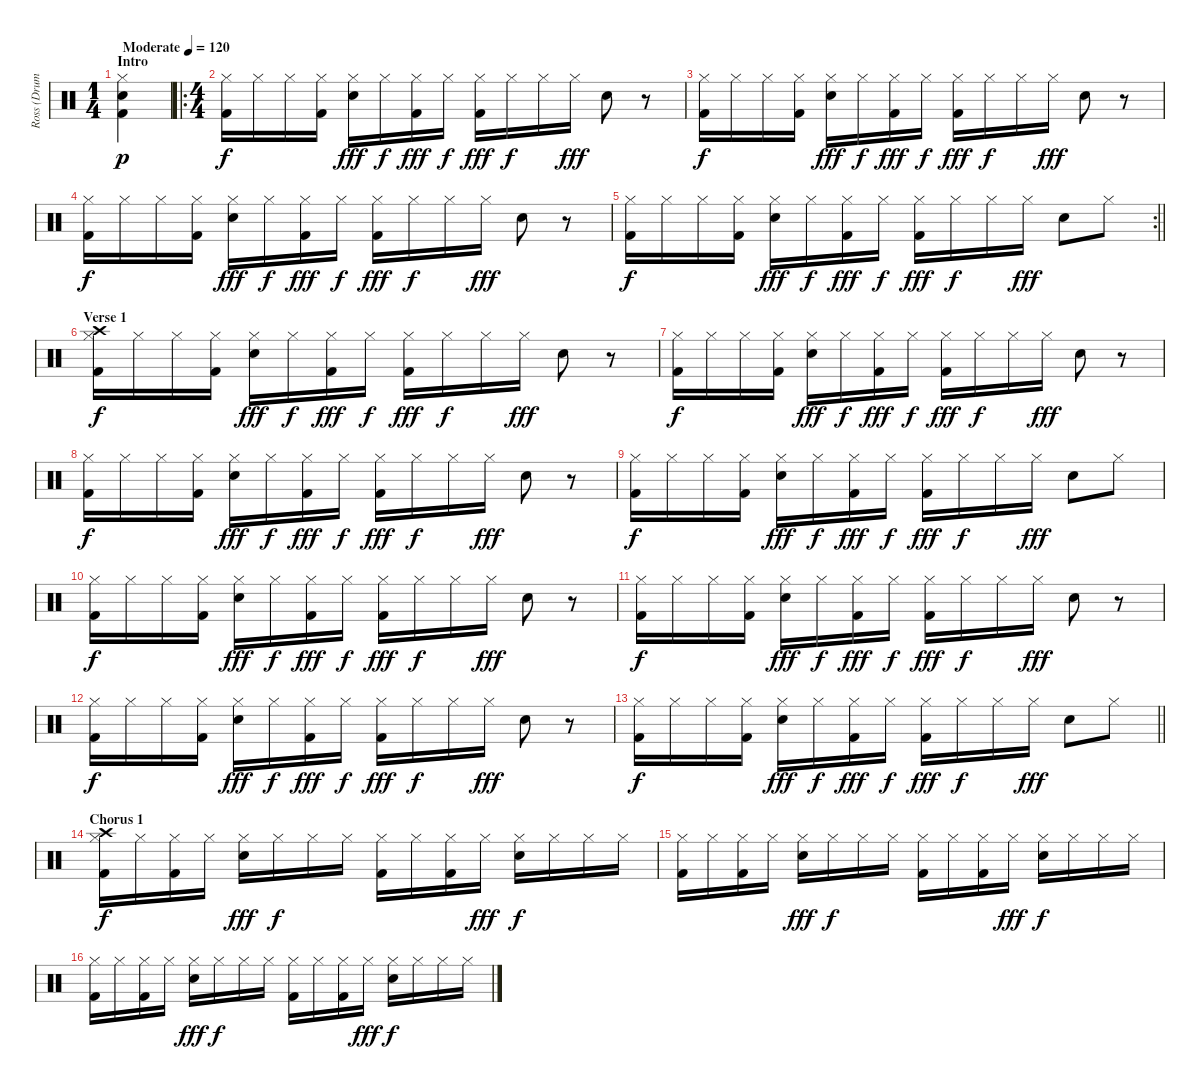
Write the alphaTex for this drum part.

\track ("Ross (Drums)" "Ross (Drum") {instrument percussion}
\staff {score}
\articulation defaults
\ts (1 4)
\section ("" "Intro")
\tempo (120 "Moderate")
\clef neutral
\ks c
("Hi-Hat (closed)" "Kick (hit) 2" "Snare (hit) 2").4{dy p} |
\ro
\ts (4 4)
("Hi-Hat (closed)" "Kick (hit) 2").16{dy f} "Hi-Hat (closed)".16 "Hi-Hat (closed)".16 ("Hi-Hat (closed)" "Kick (hit) 2").16 ("Hi-Hat (closed)" "Snare (hit) 2").16{dy fff} "Hi-Hat (closed)".16{dy f} ("Hi-Hat (closed)" "Kick (hit) 2").16{dy fff} "Hi-Hat (closed)".16{dy f} ("Hi-Hat (closed)" "Kick (hit) 2").16{dy fff} "Hi-Hat (closed)".16{dy f} "Hi-Hat (closed)".16 "Hi-Hat (closed)".16{dy fff} "Snare (hit) 2".8 r.8 |
("Hi-Hat (closed)" "Kick (hit) 2").16{dy f} "Hi-Hat (closed)".16 "Hi-Hat (closed)".16 ("Hi-Hat (closed)" "Kick (hit) 2").16 ("Hi-Hat (closed)" "Snare (hit) 2").16{dy fff} "Hi-Hat (closed)".16{dy f} ("Hi-Hat (closed)" "Kick (hit) 2").16{dy fff} "Hi-Hat (closed)".16{dy f} ("Hi-Hat (closed)" "Kick (hit) 2").16{dy fff} "Hi-Hat (closed)".16{dy f} "Hi-Hat (closed)".16 "Hi-Hat (closed)".16{dy fff} "Snare (hit) 2".8 r.8 |
("Hi-Hat (closed)" "Kick (hit) 2").16{dy f} "Hi-Hat (closed)".16 "Hi-Hat (closed)".16 ("Hi-Hat (closed)" "Kick (hit) 2").16 ("Hi-Hat (closed)" "Snare (hit) 2").16{dy fff} "Hi-Hat (closed)".16{dy f} ("Hi-Hat (closed)" "Kick (hit) 2").16{dy fff} "Hi-Hat (closed)".16{dy f} ("Hi-Hat (closed)" "Kick (hit) 2").16{dy fff} "Hi-Hat (closed)".16{dy f} "Hi-Hat (closed)".16 "Hi-Hat (closed)".16{dy fff} "Snare (hit) 2".8 r.8 |
\rc 2
\barLineRight lightlight
("Hi-Hat (closed)" "Kick (hit) 2").16{dy f} "Hi-Hat (closed)".16 "Hi-Hat (closed)".16 ("Hi-Hat (closed)" "Kick (hit) 2").16 ("Hi-Hat (closed)" "Snare (hit) 2").16{dy fff} "Hi-Hat (closed)".16{dy f} ("Hi-Hat (closed)" "Kick (hit) 2").16{dy fff} "Hi-Hat (closed)".16{dy f} ("Hi-Hat (closed)" "Kick (hit) 2").16{dy fff} "Hi-Hat (closed)".16{dy f} "Hi-Hat (closed)".16 "Hi-Hat (closed)".16{dy fff} "Snare (hit) 2".8 "Hi-Hat (closed)".8 |
\section ("" "Verse 1")
("Crash high (hit)" "Hi-Hat (closed)" "Kick (hit) 2").16{dy f} "Hi-Hat (closed)".16 "Hi-Hat (closed)".16 ("Hi-Hat (closed)" "Kick (hit) 2").16 ("Hi-Hat (closed)" "Snare (hit) 2").16{dy fff} "Hi-Hat (closed)".16{dy f} ("Hi-Hat (closed)" "Kick (hit) 2").16{dy fff} "Hi-Hat (closed)".16{dy f} ("Hi-Hat (closed)" "Kick (hit) 2").16{dy fff} "Hi-Hat (closed)".16{dy f} "Hi-Hat (closed)".16 "Hi-Hat (closed)".16{dy fff} "Snare (hit) 2".8 r.8 |
("Hi-Hat (closed)" "Kick (hit) 2").16{dy f} "Hi-Hat (closed)".16 "Hi-Hat (closed)".16 ("Hi-Hat (closed)" "Kick (hit) 2").16 ("Hi-Hat (closed)" "Snare (hit) 2").16{dy fff} "Hi-Hat (closed)".16{dy f} ("Hi-Hat (closed)" "Kick (hit) 2").16{dy fff} "Hi-Hat (closed)".16{dy f} ("Hi-Hat (closed)" "Kick (hit) 2").16{dy fff} "Hi-Hat (closed)".16{dy f} "Hi-Hat (closed)".16 "Hi-Hat (closed)".16{dy fff} "Snare (hit) 2".8 r.8 |
("Hi-Hat (closed)" "Kick (hit) 2").16{dy f} "Hi-Hat (closed)".16 "Hi-Hat (closed)".16 ("Hi-Hat (closed)" "Kick (hit) 2").16 ("Hi-Hat (closed)" "Snare (hit) 2").16{dy fff} "Hi-Hat (closed)".16{dy f} ("Hi-Hat (closed)" "Kick (hit) 2").16{dy fff} "Hi-Hat (closed)".16{dy f} ("Hi-Hat (closed)" "Kick (hit) 2").16{dy fff} "Hi-Hat (closed)".16{dy f} "Hi-Hat (closed)".16 "Hi-Hat (closed)".16{dy fff} "Snare (hit) 2".8 r.8 |
("Hi-Hat (closed)" "Kick (hit) 2").16{dy f} "Hi-Hat (closed)".16 "Hi-Hat (closed)".16 ("Hi-Hat (closed)" "Kick (hit) 2").16 ("Hi-Hat (closed)" "Snare (hit) 2").16{dy fff} "Hi-Hat (closed)".16{dy f} ("Hi-Hat (closed)" "Kick (hit) 2").16{dy fff} "Hi-Hat (closed)".16{dy f} ("Hi-Hat (closed)" "Kick (hit) 2").16{dy fff} "Hi-Hat (closed)".16{dy f} "Hi-Hat (closed)".16 "Hi-Hat (closed)".16{dy fff} "Snare (hit) 2".8 "Hi-Hat (closed)".8 |
("Hi-Hat (closed)" "Kick (hit) 2").16{dy f} "Hi-Hat (closed)".16 "Hi-Hat (closed)".16 ("Hi-Hat (closed)" "Kick (hit) 2").16 ("Hi-Hat (closed)" "Snare (hit) 2").16{dy fff} "Hi-Hat (closed)".16{dy f} ("Hi-Hat (closed)" "Kick (hit) 2").16{dy fff} "Hi-Hat (closed)".16{dy f} ("Hi-Hat (closed)" "Kick (hit) 2").16{dy fff} "Hi-Hat (closed)".16{dy f} "Hi-Hat (closed)".16 "Hi-Hat (closed)".16{dy fff} "Snare (hit) 2".8 r.8 |
("Hi-Hat (closed)" "Kick (hit) 2").16{dy f} "Hi-Hat (closed)".16 "Hi-Hat (closed)".16 ("Hi-Hat (closed)" "Kick (hit) 2").16 ("Hi-Hat (closed)" "Snare (hit) 2").16{dy fff} "Hi-Hat (closed)".16{dy f} ("Hi-Hat (closed)" "Kick (hit) 2").16{dy fff} "Hi-Hat (closed)".16{dy f} ("Hi-Hat (closed)" "Kick (hit) 2").16{dy fff} "Hi-Hat (closed)".16{dy f} "Hi-Hat (closed)".16 "Hi-Hat (closed)".16{dy fff} "Snare (hit) 2".8 r.8 |
("Hi-Hat (closed)" "Kick (hit) 2").16{dy f} "Hi-Hat (closed)".16 "Hi-Hat (closed)".16 ("Hi-Hat (closed)" "Kick (hit) 2").16 ("Hi-Hat (closed)" "Snare (hit) 2").16{dy fff} "Hi-Hat (closed)".16{dy f} ("Hi-Hat (closed)" "Kick (hit) 2").16{dy fff} "Hi-Hat (closed)".16{dy f} ("Hi-Hat (closed)" "Kick (hit) 2").16{dy fff} "Hi-Hat (closed)".16{dy f} "Hi-Hat (closed)".16 "Hi-Hat (closed)".16{dy fff} "Snare (hit) 2".8 r.8 |
\barLineRight lightlight
("Hi-Hat (closed)" "Kick (hit) 2").16{dy f} "Hi-Hat (closed)".16 "Hi-Hat (closed)".16 ("Hi-Hat (closed)" "Kick (hit) 2").16 ("Hi-Hat (closed)" "Snare (hit) 2").16{dy fff} "Hi-Hat (closed)".16{dy f} ("Hi-Hat (closed)" "Kick (hit) 2").16{dy fff} "Hi-Hat (closed)".16{dy f} ("Hi-Hat (closed)" "Kick (hit) 2").16{dy fff} "Hi-Hat (closed)".16{dy f} "Hi-Hat (closed)".16 "Hi-Hat (closed)".16{dy fff} "Snare (hit) 2".8 "Hi-Hat (closed)".8 |
\section ("" "Chorus 1")
("Crash high (hit)" "Hi-Hat (closed)" "Kick (hit) 2").16{dy f} "Hi-Hat (closed)".16 ("Hi-Hat (closed)" "Kick (hit) 2").16 "Hi-Hat (closed)".16 ("Hi-Hat (closed)" "Snare (hit) 2").16{dy fff} "Hi-Hat (closed)".16{dy f} "Hi-Hat (closed)".16 "Hi-Hat (closed)".16 ("Hi-Hat (closed)" "Kick (hit) 2").16 "Hi-Hat (closed)".16 ("Hi-Hat (closed)" "Kick (hit) 2").16 "Hi-Hat (closed)".16{dy fff} ("Hi-Hat (closed)" "Snare (hit) 2").16{dy f} "Hi-Hat (closed)".16 "Hi-Hat (closed)".16 "Hi-Hat (closed)".16 |
("Hi-Hat (closed)" "Kick (hit) 2").16 "Hi-Hat (closed)".16 ("Hi-Hat (closed)" "Kick (hit) 2").16 "Hi-Hat (closed)".16 ("Hi-Hat (closed)" "Snare (hit) 2").16{dy fff} "Hi-Hat (closed)".16{dy f} "Hi-Hat (closed)".16 "Hi-Hat (closed)".16 ("Hi-Hat (closed)" "Kick (hit) 2").16 "Hi-Hat (closed)".16 ("Hi-Hat (closed)" "Kick (hit) 2").16 "Hi-Hat (closed)".16{dy fff} ("Hi-Hat (closed)" "Snare (hit) 2").16{dy f} "Hi-Hat (closed)".16 "Hi-Hat (closed)".16 "Hi-Hat (closed)".16 |
("Hi-Hat (closed)" "Kick (hit) 2").16 "Hi-Hat (closed)".16 ("Hi-Hat (closed)" "Kick (hit) 2").16 "Hi-Hat (closed)".16 ("Hi-Hat (closed)" "Snare (hit) 2").16{dy fff} "Hi-Hat (closed)".16{dy f} "Hi-Hat (closed)".16 "Hi-Hat (closed)".16 ("Hi-Hat (closed)" "Kick (hit) 2").16 "Hi-Hat (closed)".16 ("Hi-Hat (closed)" "Kick (hit) 2").16 "Hi-Hat (closed)".16{dy fff} ("Hi-Hat (closed)" "Snare (hit) 2").16{dy f} "Hi-Hat (closed)".16 "Hi-Hat (closed)".16 "Hi-Hat (closed)".16
